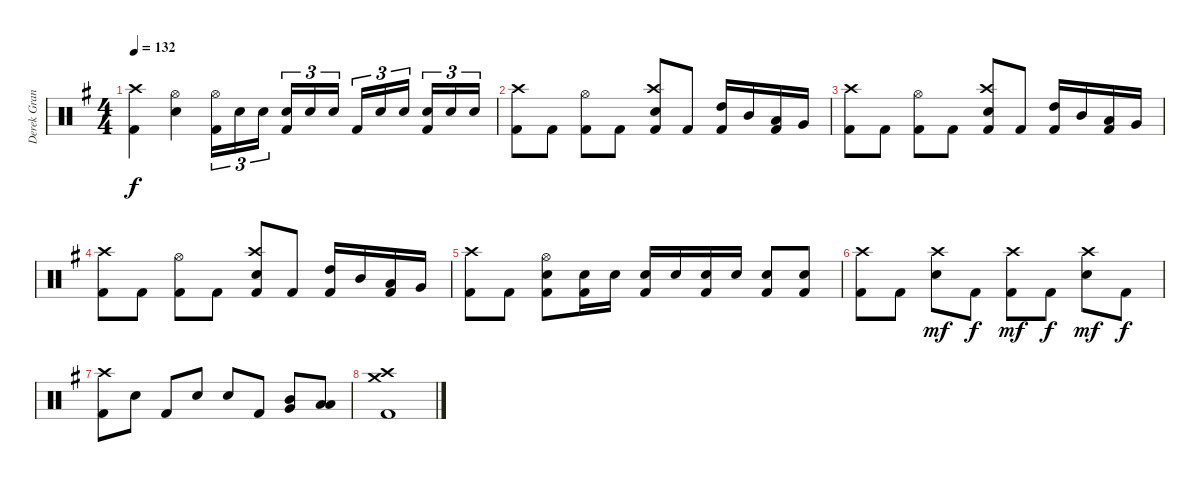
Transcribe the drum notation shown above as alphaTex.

\track ("Derek Grant - Drums" "Derek Gran") {instrument percussion}
\staff {score}
\articulation defaults
\ts (4 4)
\tempo 132
\clef neutral
\ks g
("Kick (hit) 2" "Crash high (hit)").4{dy f} ("Snare (hit) 2" "Hi-Hat (open)").4 ("Kick (hit) 2" "Hi-Hat (open)").16{tu (3 2)} "Snare (hit) 2".16{tu (3 2)} "Snare (hit) 2".16{tu (3 2) beam splitsecondary} ("Kick (hit) 2" "Snare (hit) 2").16{tu (3 2)} "Snare (hit) 2".16{tu (3 2)} "Snare (hit) 2".16{tu (3 2)} "Kick (hit) 2".16{tu (3 2)} "Snare (hit) 2".16{tu (3 2)} "Snare (hit) 2".16{tu (3 2) beam splitsecondary} ("Kick (hit) 2" "Snare (hit) 2").16{tu (3 2)} "Snare (hit) 2".16{tu (3 2)} "Snare (hit) 2".16{tu (3 2)} |
("Kick (hit) 2" "Crash high (hit)").8 "Kick (hit) 2".8 ("Kick (hit) 2" "Hi-Hat (open)").8 "Kick (hit) 2".8 ("Kick (hit) 2" "Snare (hit) 2" "Crash high (hit)").8 "Kick (hit) 2".8 ("Kick (hit) 2" "High Tom (hit)").16 "Mid Tom (hit)".16 ("Kick (hit) 2" "Low Tom (hit)").16 "Very Low Tom (hit)".16 |
("Kick (hit) 2" "Crash high (hit)").8 "Kick (hit) 2".8 ("Kick (hit) 2" "Hi-Hat (open)").8 "Kick (hit) 2".8 ("Kick (hit) 2" "Snare (hit) 2" "Crash high (hit)").8 "Kick (hit) 2".8 ("Kick (hit) 2" "High Tom (hit)").16 "Mid Tom (hit)".16 ("Kick (hit) 2" "Low Tom (hit)").16 "Very Low Tom (hit)".16 |
("Kick (hit) 2" "Crash high (hit)").8 "Kick (hit) 2".8 ("Kick (hit) 2" "Hi-Hat (open)").8 "Kick (hit) 2".8 ("Kick (hit) 2" "Snare (hit) 2" "Crash high (hit)").8 "Kick (hit) 2".8 ("Kick (hit) 2" "High Tom (hit)").16 "Mid Tom (hit)".16 ("Kick (hit) 2" "Low Tom (hit)").16 "Very Low Tom (hit)".16 |
("Kick (hit) 2" "Crash high (hit)").8 "Kick (hit) 2".8 ("Kick (hit) 2" "Snare (hit) 2" "Hi-Hat (open)").8 ("Kick (hit) 2" "Snare (hit) 2").16 "Snare (hit) 2".16 ("Kick (hit) 2" "Snare (hit) 2").16 "Snare (hit) 2".16 ("Kick (hit) 2" "Snare (hit) 2").16 "Snare (hit) 2".16 ("Kick (hit) 2" "Snare (hit) 2").8 ("Kick (hit) 2" "Snare (hit) 2").8 |
("Kick (hit) 2" "Crash high (hit)").8 "Kick (hit) 2".8 ("Crash high (hit)" "Snare (hit) 2").8{dy mf} "Kick (hit) 2".8{dy f} ("Kick (hit) 2" "Crash high (hit)").8{dy mf} "Kick (hit) 2".8{dy f} ("Crash high (hit)" "Snare (hit) 2").8{dy mf} "Kick (hit) 2".8{dy f} |
("Kick (hit) 2" "Crash high (hit)").8 "Snare (hit) 2".8 "Kick (hit) 2".8 "Snare (hit) 2".8 "Snare (hit) 2".8 "Kick (hit) 2".8 ("Mid Tom (hit)" "Very Low Tom (hit)").8 ("Low Tom (hit)" "Low Floor Tom (hit)").8 |
("Kick (hit) 2" "Crash high (hit)" "Crash medium (hit)").1
